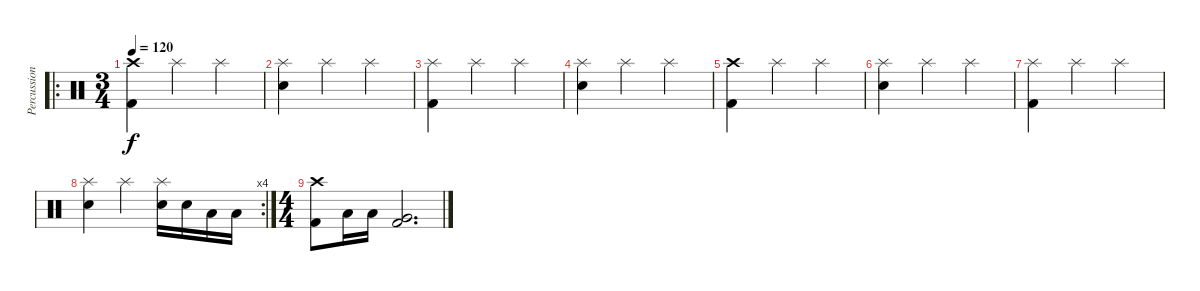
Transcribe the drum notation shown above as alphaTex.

\track ("Percussion" "Percussion") {instrument percussion}
\staff {score}
\articulation defaults
\ro
\ts (3 4)
\tempo 120
\clef neutral
\ks c
("Crash high (hit)" "Kick (hit) 2").4{dy f} "Splash (hit)".4 "Splash (hit)".4 |
("Splash (hit)" "Electric Snare (hit)").4 "Splash (hit)".4 "Splash (hit)".4 |
("Splash (hit)" "Kick (hit) 2").4 "Splash (hit)".4 "Splash (hit)".4 |
("Splash (hit)" "Electric Snare (hit)").4 "Splash (hit)".4 "Splash (hit)".4 |
("Crash high (hit)" "Kick (hit) 2").4 "Splash (hit)".4 "Splash (hit)".4 |
("Splash (hit)" "Electric Snare (hit)").4 "Splash (hit)".4 "Splash (hit)".4 |
("Splash (hit)" "Kick (hit) 2").4 "Splash (hit)".4 "Splash (hit)".4 |
\rc 4
("Splash (hit)" "Electric Snare (hit)").4 "Splash (hit)".4 ("Splash (hit)" "Electric Snare (hit)").16 "Electric Snare (hit)".16 "Low Tom (hit)".16 "Low Tom (hit)".16 |
\ts (4 4)
("Crash high (hit)" "Kick (hit) 2").8 "Low Tom (hit)".16 "Low Tom (hit)".16 ("Very Low Tom (hit)" "Kick (hit) 2").2{d}
